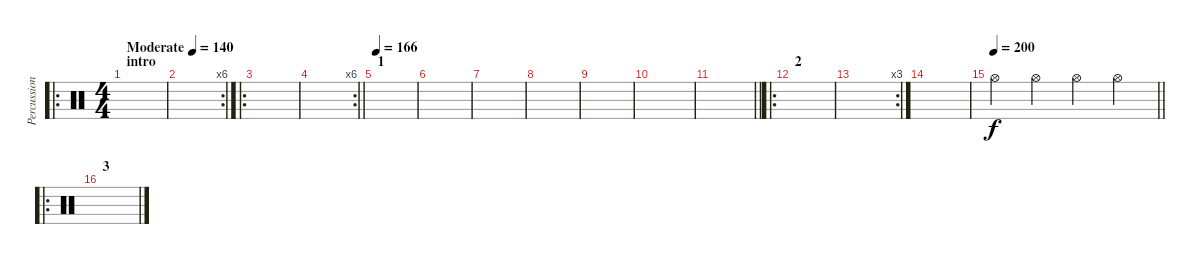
\track ("Percussion" "Percussion") {instrument percussion}
\staff {score}
\articulation defaults
\ro
\ts (4 4)
\section ("" "intro")
\tempo (140 "Moderate")
\clef neutral
\ks c
|
\rc 6
|
\ro
|
\rc 6
\barLineRight lightlight
|
\section ("" "1")
\tempo 166
|
|
|
|
|
|
\barLineRight lightlight
|
\ro
\section ("" "2")
|
\rc 3
|
|
\tempo 200
\barLineRight lightlight "Hi-Hat (open)".4 "Hi-Hat (open)".4 "Hi-Hat (open)".4 "Hi-Hat (open)".4
|
\ro
\section ("" "3")
